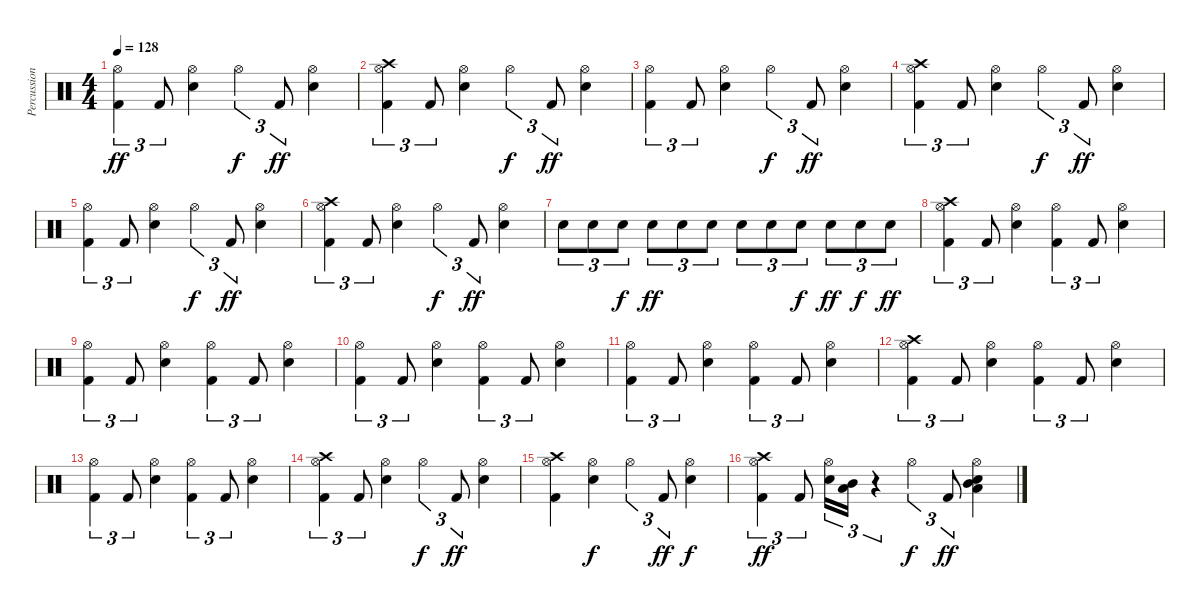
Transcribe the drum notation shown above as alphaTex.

\track ("Percussion" "Percussion") {instrument percussion}
\staff {score}
\articulation defaults
\ts (4 4)
\tempo 128
\clef neutral
\ks c
("Kick (hit) 2" "Hi-Hat (open)").4{tu (3 2) dy ff} "Kick (hit) 2".8{tu (3 2)} ("Snare (hit) 2" "Hi-Hat (open)").4 "Hi-Hat (open)".4{tu (3 2) dy f} "Kick (hit) 2".8{tu (3 2) dy ff} ("Snare (hit) 2" "Hi-Hat (open)").4 |
("Kick (hit) 2" "Crash high (hit)" "Hi-Hat (open)").4{tu (3 2)} "Kick (hit) 2".8{tu (3 2)} ("Snare (hit) 2" "Hi-Hat (open)").4 "Hi-Hat (open)".4{tu (3 2) dy f} "Kick (hit) 2".8{tu (3 2) dy ff} ("Snare (hit) 2" "Hi-Hat (open)").4 |
("Kick (hit) 2" "Hi-Hat (open)").4{tu (3 2)} "Kick (hit) 2".8{tu (3 2)} ("Hi-Hat (open)" "Snare (hit) 2").4 "Hi-Hat (open)".4{tu (3 2) dy f} "Kick (hit) 2".8{tu (3 2) dy ff} ("Snare (hit) 2" "Hi-Hat (open)").4 |
("Kick (hit) 2" "Crash high (hit)" "Hi-Hat (open)").4{tu (3 2)} "Kick (hit) 2".8{tu (3 2)} ("Snare (hit) 2" "Hi-Hat (open)").4 "Hi-Hat (open)".4{tu (3 2) dy f} "Kick (hit) 2".8{tu (3 2) dy ff} ("Snare (hit) 2" "Hi-Hat (open)").4 |
("Hi-Hat (open)" "Kick (hit) 2").4{tu (3 2)} "Kick (hit) 2".8{tu (3 2)} ("Hi-Hat (open)" "Snare (hit) 2").4 "Hi-Hat (open)".4{tu (3 2) dy f} "Kick (hit) 2".8{tu (3 2) dy ff} ("Snare (hit) 2" "Hi-Hat (open)").4 |
("Kick (hit) 2" "Crash high (hit)" "Hi-Hat (open)").4{tu (3 2)} "Kick (hit) 2".8{tu (3 2)} ("Snare (hit) 2" "Hi-Hat (open)").4 "Hi-Hat (open)".4{tu (3 2) dy f} "Kick (hit) 2".8{tu (3 2) dy ff} ("Snare (hit) 2" "Hi-Hat (open)").4 |
"Snare (hit) 2".8{tu (3 2)} "Snare (hit) 2".8{tu (3 2)} "Snare (hit) 2".8{tu (3 2) dy f} "Snare (hit) 2".8{tu (3 2) dy ff} "Snare (hit) 2".8{tu (3 2)} "Snare (hit) 2".8{tu (3 2)} "Snare (hit) 2".8{tu (3 2)} "Snare (hit) 2".8{tu (3 2)} "Snare (hit) 2".8{tu (3 2) dy f} "Snare (hit) 2".8{tu (3 2) dy ff} "Snare (hit) 2".8{tu (3 2) dy f} "Snare (hit) 2".8{tu (3 2) dy ff} |
("Kick (hit) 2" "Crash high (hit)" "Hi-Hat (open)").4{tu (3 2)} "Kick (hit) 2".8{tu (3 2)} ("Hi-Hat (open)" "Snare (hit) 2").4 ("Kick (hit) 2" "Hi-Hat (open)").4{tu (3 2)} "Kick (hit) 2".8{tu (3 2)} ("Snare (hit) 2" "Hi-Hat (open)").4 |
("Kick (hit) 2" "Hi-Hat (open)").4{tu (3 2)} "Kick (hit) 2".8{tu (3 2)} ("Hi-Hat (open)" "Snare (hit) 2").4 ("Hi-Hat (open)" "Kick (hit) 2").4{tu (3 2)} "Kick (hit) 2".8{tu (3 2)} ("Hi-Hat (open)" "Snare (hit) 2").4 |
("Kick (hit) 2" "Hi-Hat (open)").4{tu (3 2)} "Kick (hit) 2".8{tu (3 2)} ("Snare (hit) 2" "Hi-Hat (open)").4 ("Hi-Hat (open)" "Kick (hit) 2").4{tu (3 2)} "Kick (hit) 2".8{tu (3 2)} ("Snare (hit) 2" "Hi-Hat (open)").4 |
("Kick (hit) 2" "Hi-Hat (open)").4{tu (3 2)} "Kick (hit) 2".8{tu (3 2)} ("Snare (hit) 2" "Hi-Hat (open)").4 ("Hi-Hat (open)" "Kick (hit) 2").4{tu (3 2)} "Kick (hit) 2".8{tu (3 2)} ("Snare (hit) 2" "Hi-Hat (open)").4 |
("Crash high (hit)" "Hi-Hat (open)" "Kick (hit) 2").4{tu (3 2)} "Kick (hit) 2".8{tu (3 2)} ("Snare (hit) 2" "Hi-Hat (open)").4 ("Hi-Hat (open)" "Kick (hit) 2").4{tu (3 2)} "Kick (hit) 2".8{tu (3 2)} ("Snare (hit) 2" "Hi-Hat (open)").4 |
("Kick (hit) 2" "Hi-Hat (open)").4{tu (3 2)} "Kick (hit) 2".8{tu (3 2)} ("Snare (hit) 2" "Hi-Hat (open)").4 ("Kick (hit) 2" "Hi-Hat (open)").4{tu (3 2)} "Kick (hit) 2".8{tu (3 2)} ("Hi-Hat (open)" "Snare (hit) 2").4 |
("Kick (hit) 2" "Hi-Hat (open)" "Crash high (hit)").4{tu (3 2)} "Kick (hit) 2".8{tu (3 2)} ("Snare (hit) 2" "Hi-Hat (open)").4 "Hi-Hat (open)".4{tu (3 2) dy f} "Kick (hit) 2".8{tu (3 2) dy ff} ("Snare (hit) 2" "Hi-Hat (open)").4 |
("Hi-Hat (open)" "Crash high (hit)" "Kick (hit) 2").4 ("Hi-Hat (open)" "Snare (hit) 2").4{dy f} "Hi-Hat (open)".4{tu (3 2)} "Kick (hit) 2".8{tu (3 2) dy ff} ("Hi-Hat (open)" "Snare (hit) 2").4{dy f} |
("Crash high (hit)" "Kick (hit) 2" "Hi-Hat (open)").4{tu (3 2) dy ff} "Kick (hit) 2".8{tu (3 2)} ("Snare (hit) 2" "Hi-Hat (open)").16{tu (3 2)} ("Mid Tom (hit)" "Low Floor Tom (hit)").16{tu (3 2)} r.4{tu (3 2)} "Hi-Hat (open)".4{tu (3 2) dy f} "Kick (hit) 2".8{tu (3 2) dy ff} ("Snare (hit) 2" "Hi-Hat (open)" "Mid Tom (hit)" "Low Floor Tom (hit)").4
